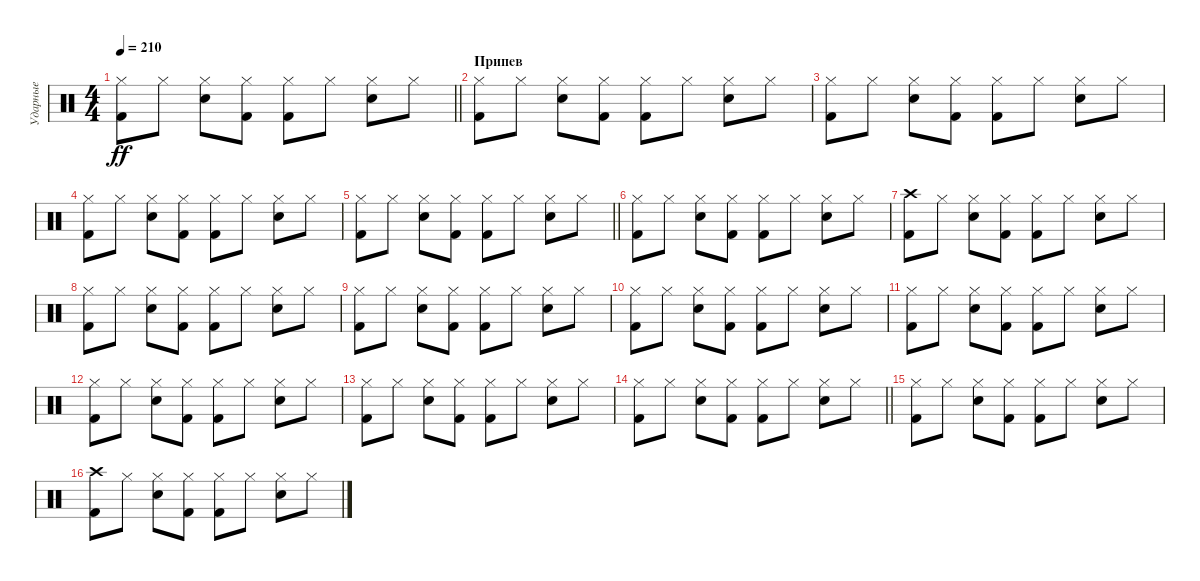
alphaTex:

\track ("Ударные" "Ударные") {instrument percussion}
\staff {score}
\articulation defaults
\ts (4 4)
\tempo 210
\clef neutral
\barLineRight lightlight
\ks c
("Hi-Hat (closed)" "Kick (hit) 2").8{dy ff} "Hi-Hat (closed)".8 ("Hi-Hat (closed)" "Snare (hit) 2").8 ("Hi-Hat (closed)" "Kick (hit) 2").8 ("Hi-Hat (closed)" "Kick (hit) 2").8 "Hi-Hat (closed)".8 ("Hi-Hat (closed)" "Snare (hit) 2").8 "Hi-Hat (closed)".8 |
\section ("" "Припев")
("Hi-Hat (closed)" "Kick (hit) 2").8 "Hi-Hat (closed)".8 ("Hi-Hat (closed)" "Snare (hit) 2").8 ("Hi-Hat (closed)" "Kick (hit) 2").8 ("Hi-Hat (closed)" "Kick (hit) 2").8 "Hi-Hat (closed)".8 ("Hi-Hat (closed)" "Snare (hit) 2").8 "Hi-Hat (closed)".8 |
("Hi-Hat (closed)" "Kick (hit) 2").8 "Hi-Hat (closed)".8 ("Hi-Hat (closed)" "Snare (hit) 2").8 ("Hi-Hat (closed)" "Kick (hit) 2").8 ("Hi-Hat (closed)" "Kick (hit) 2").8 "Hi-Hat (closed)".8 ("Hi-Hat (closed)" "Snare (hit) 2").8 "Hi-Hat (closed)".8 |
("Hi-Hat (closed)" "Kick (hit) 2").8 "Hi-Hat (closed)".8 ("Hi-Hat (closed)" "Snare (hit) 2").8 ("Hi-Hat (closed)" "Kick (hit) 2").8 ("Hi-Hat (closed)" "Kick (hit) 2").8 "Hi-Hat (closed)".8 ("Hi-Hat (closed)" "Snare (hit) 2").8 "Hi-Hat (closed)".8 |
\barLineRight lightlight
("Hi-Hat (closed)" "Kick (hit) 2").8 "Hi-Hat (closed)".8 ("Hi-Hat (closed)" "Snare (hit) 2").8 ("Hi-Hat (closed)" "Kick (hit) 2").8 ("Hi-Hat (closed)" "Kick (hit) 2").8 "Hi-Hat (closed)".8 ("Hi-Hat (closed)" "Snare (hit) 2").8 "Hi-Hat (closed)".8 |
("Hi-Hat (closed)" "Kick (hit) 2").8 "Hi-Hat (closed)".8 ("Hi-Hat (closed)" "Snare (hit) 2").8 ("Hi-Hat (closed)" "Kick (hit) 2").8 ("Hi-Hat (closed)" "Kick (hit) 2").8 "Hi-Hat (closed)".8 ("Hi-Hat (closed)" "Snare (hit) 2").8 "Hi-Hat (closed)".8 |
("Crash high (hit)" "Kick (hit) 2").8 "Hi-Hat (closed)".8 ("Hi-Hat (closed)" "Snare (hit) 2").8 ("Hi-Hat (closed)" "Kick (hit) 2").8 ("Hi-Hat (closed)" "Kick (hit) 2").8 "Hi-Hat (closed)".8 ("Hi-Hat (closed)" "Snare (hit) 2").8 "Hi-Hat (closed)".8 |
("Hi-Hat (closed)" "Kick (hit) 2").8 "Hi-Hat (closed)".8 ("Hi-Hat (closed)" "Snare (hit) 2").8 ("Hi-Hat (closed)" "Kick (hit) 2").8 ("Hi-Hat (closed)" "Kick (hit) 2").8 "Hi-Hat (closed)".8 ("Hi-Hat (closed)" "Snare (hit) 2").8 "Hi-Hat (closed)".8 |
("Hi-Hat (closed)" "Kick (hit) 2").8 "Hi-Hat (closed)".8 ("Hi-Hat (closed)" "Snare (hit) 2").8 ("Hi-Hat (closed)" "Kick (hit) 2").8 ("Hi-Hat (closed)" "Kick (hit) 2").8 "Hi-Hat (closed)".8 ("Hi-Hat (closed)" "Snare (hit) 2").8 "Hi-Hat (closed)".8 |
("Hi-Hat (closed)" "Kick (hit) 2").8 "Hi-Hat (closed)".8 ("Hi-Hat (closed)" "Snare (hit) 2").8 ("Hi-Hat (closed)" "Kick (hit) 2").8 ("Hi-Hat (closed)" "Kick (hit) 2").8 "Hi-Hat (closed)".8 ("Hi-Hat (closed)" "Snare (hit) 2").8 "Hi-Hat (closed)".8 |
("Hi-Hat (closed)" "Kick (hit) 2").8 "Hi-Hat (closed)".8 ("Hi-Hat (closed)" "Snare (hit) 2").8 ("Hi-Hat (closed)" "Kick (hit) 2").8 ("Hi-Hat (closed)" "Kick (hit) 2").8 "Hi-Hat (closed)".8 ("Hi-Hat (closed)" "Snare (hit) 2").8 "Hi-Hat (closed)".8 |
("Hi-Hat (closed)" "Kick (hit) 2").8 "Hi-Hat (closed)".8 ("Hi-Hat (closed)" "Snare (hit) 2").8 ("Hi-Hat (closed)" "Kick (hit) 2").8 ("Hi-Hat (closed)" "Kick (hit) 2").8 "Hi-Hat (closed)".8 ("Hi-Hat (closed)" "Snare (hit) 2").8 "Hi-Hat (closed)".8 |
("Hi-Hat (closed)" "Kick (hit) 2").8 "Hi-Hat (closed)".8 ("Hi-Hat (closed)" "Snare (hit) 2").8 ("Hi-Hat (closed)" "Kick (hit) 2").8 ("Hi-Hat (closed)" "Kick (hit) 2").8 "Hi-Hat (closed)".8 ("Hi-Hat (closed)" "Snare (hit) 2").8 "Hi-Hat (closed)".8 |
\barLineRight lightlight
("Hi-Hat (closed)" "Kick (hit) 2").8 "Hi-Hat (closed)".8 ("Hi-Hat (closed)" "Snare (hit) 2").8 ("Hi-Hat (closed)" "Kick (hit) 2").8 ("Hi-Hat (closed)" "Kick (hit) 2").8 "Hi-Hat (closed)".8 ("Hi-Hat (closed)" "Snare (hit) 2").8 "Hi-Hat (closed)".8 |
("Hi-Hat (closed)" "Kick (hit) 2").8 "Hi-Hat (closed)".8 ("Hi-Hat (closed)" "Snare (hit) 2").8 ("Hi-Hat (closed)" "Kick (hit) 2").8 ("Hi-Hat (closed)" "Kick (hit) 2").8 "Hi-Hat (closed)".8 ("Hi-Hat (closed)" "Snare (hit) 2").8 "Hi-Hat (closed)".8 |
("Crash high (hit)" "Kick (hit) 2").8 "Hi-Hat (closed)".8 ("Hi-Hat (closed)" "Snare (hit) 2").8 ("Hi-Hat (closed)" "Kick (hit) 2").8 ("Hi-Hat (closed)" "Kick (hit) 2").8 "Hi-Hat (closed)".8 ("Hi-Hat (closed)" "Snare (hit) 2").8 "Hi-Hat (closed)".8
